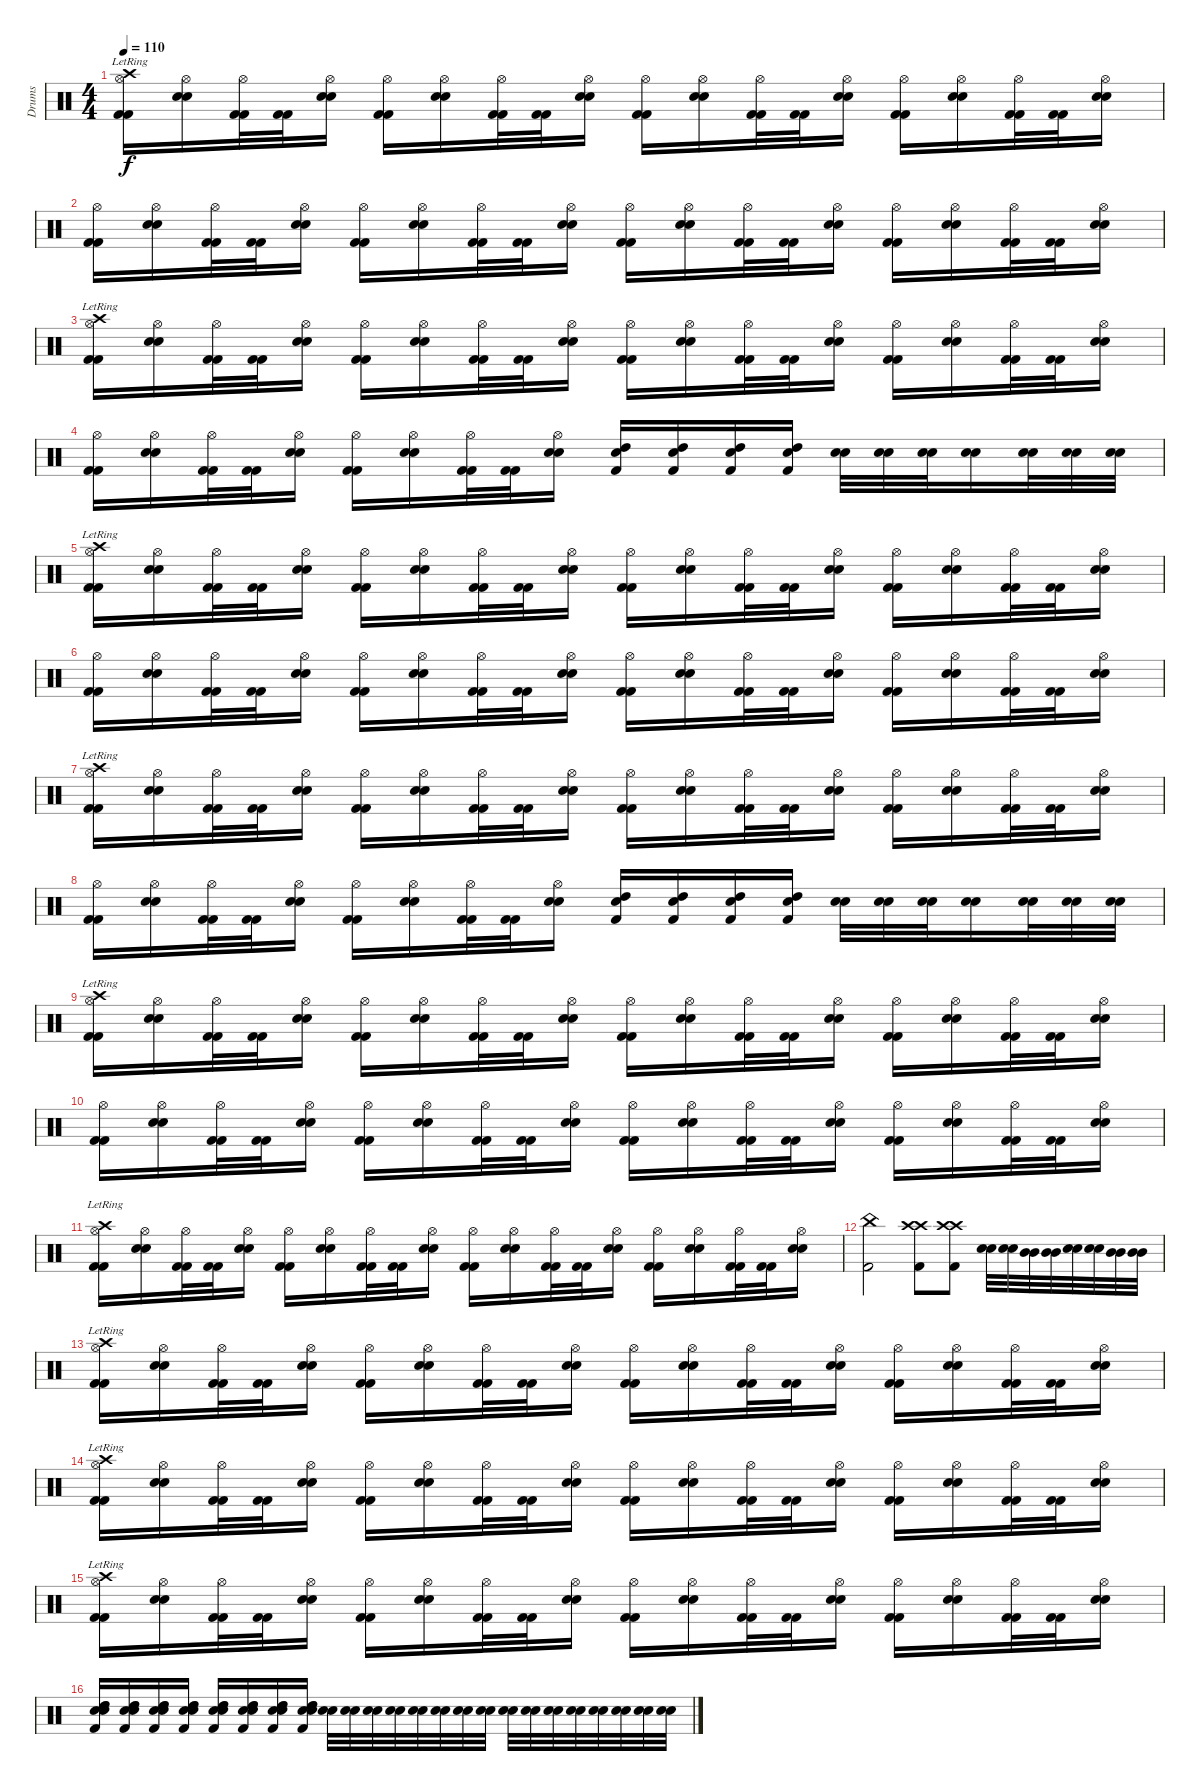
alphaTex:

\track ("Drums" "Drums") {instrument percussion}
\staff {score}
\articulation defaults
\ts (4 4)
\tempo 110
\clef neutral
\ks c
("Kick (hit) 2" "Kick (hit) 2" "Hi-Hat (open)" "Crash high (hit)"{lr}).16{dy f} ("Snare (hit) 2" "Snare (hit) 2" "Hi-Hat (open)").16 ("Kick (hit) 2" "Kick (hit) 2" "Hi-Hat (open)").32 ("Kick (hit) 2" "Kick (hit) 2").32 ("Snare (hit) 2" "Snare (hit) 2" "Hi-Hat (open)").16 ("Kick (hit) 2" "Kick (hit) 2" "Hi-Hat (open)").16 ("Snare (hit) 2" "Snare (hit) 2" "Hi-Hat (open)").16 ("Kick (hit) 2" "Kick (hit) 2" "Hi-Hat (open)").32 ("Kick (hit) 2" "Kick (hit) 2").32 ("Snare (hit) 2" "Snare (hit) 2" "Hi-Hat (open)").16 ("Kick (hit) 2" "Kick (hit) 2" "Hi-Hat (open)").16 ("Snare (hit) 2" "Snare (hit) 2" "Hi-Hat (open)").16 ("Kick (hit) 2" "Kick (hit) 2" "Hi-Hat (open)").32 ("Kick (hit) 2" "Kick (hit) 2").32 ("Snare (hit) 2" "Snare (hit) 2" "Hi-Hat (open)").16 ("Kick (hit) 2" "Kick (hit) 2" "Hi-Hat (open)").16 ("Snare (hit) 2" "Snare (hit) 2" "Hi-Hat (open)").16 ("Kick (hit) 2" "Kick (hit) 2" "Hi-Hat (open)").32 ("Kick (hit) 2" "Kick (hit) 2").32 ("Snare (hit) 2" "Snare (hit) 2" "Hi-Hat (open)").16 |
("Kick (hit) 2" "Kick (hit) 2" "Hi-Hat (open)").16 ("Snare (hit) 2" "Snare (hit) 2" "Hi-Hat (open)").16 ("Kick (hit) 2" "Kick (hit) 2" "Hi-Hat (open)").32 ("Kick (hit) 2" "Kick (hit) 2").32 ("Snare (hit) 2" "Snare (hit) 2" "Hi-Hat (open)").16 ("Kick (hit) 2" "Kick (hit) 2" "Hi-Hat (open)").16 ("Snare (hit) 2" "Snare (hit) 2" "Hi-Hat (open)").16 ("Kick (hit) 2" "Kick (hit) 2" "Hi-Hat (open)").32 ("Kick (hit) 2" "Kick (hit) 2").32 ("Snare (hit) 2" "Snare (hit) 2" "Hi-Hat (open)").16 ("Kick (hit) 2" "Kick (hit) 2" "Hi-Hat (open)").16 ("Snare (hit) 2" "Snare (hit) 2" "Hi-Hat (open)").16 ("Kick (hit) 2" "Kick (hit) 2" "Hi-Hat (open)").32 ("Kick (hit) 2" "Kick (hit) 2").32 ("Snare (hit) 2" "Snare (hit) 2" "Hi-Hat (open)").16 ("Kick (hit) 2" "Kick (hit) 2" "Hi-Hat (open)").16 ("Snare (hit) 2" "Snare (hit) 2" "Hi-Hat (open)").16 ("Kick (hit) 2" "Kick (hit) 2" "Hi-Hat (open)").32 ("Kick (hit) 2" "Kick (hit) 2").32 ("Snare (hit) 2" "Snare (hit) 2" "Hi-Hat (open)").16 |
("Kick (hit) 2" "Kick (hit) 2" "Hi-Hat (open)" "Crash high (hit)"{lr}).16 ("Snare (hit) 2" "Snare (hit) 2" "Hi-Hat (open)").16 ("Kick (hit) 2" "Kick (hit) 2" "Hi-Hat (open)").32 ("Kick (hit) 2" "Kick (hit) 2").32 ("Snare (hit) 2" "Snare (hit) 2" "Hi-Hat (open)").16 ("Kick (hit) 2" "Kick (hit) 2" "Hi-Hat (open)").16 ("Snare (hit) 2" "Snare (hit) 2" "Hi-Hat (open)").16 ("Kick (hit) 2" "Kick (hit) 2" "Hi-Hat (open)").32 ("Kick (hit) 2" "Kick (hit) 2").32 ("Snare (hit) 2" "Snare (hit) 2" "Hi-Hat (open)").16 ("Kick (hit) 2" "Kick (hit) 2" "Hi-Hat (open)").16 ("Snare (hit) 2" "Snare (hit) 2" "Hi-Hat (open)").16 ("Kick (hit) 2" "Kick (hit) 2" "Hi-Hat (open)").32 ("Kick (hit) 2" "Kick (hit) 2").32 ("Snare (hit) 2" "Snare (hit) 2" "Hi-Hat (open)").16 ("Kick (hit) 2" "Kick (hit) 2" "Hi-Hat (open)").16 ("Snare (hit) 2" "Snare (hit) 2" "Hi-Hat (open)").16 ("Kick (hit) 2" "Kick (hit) 2" "Hi-Hat (open)").32 ("Kick (hit) 2" "Kick (hit) 2").32 ("Snare (hit) 2" "Snare (hit) 2" "Hi-Hat (open)").16 |
("Kick (hit) 2" "Kick (hit) 2" "Hi-Hat (open)").16 ("Snare (hit) 2" "Snare (hit) 2" "Hi-Hat (open)").16 ("Kick (hit) 2" "Kick (hit) 2" "Hi-Hat (open)").32 ("Kick (hit) 2" "Kick (hit) 2").32 ("Snare (hit) 2" "Snare (hit) 2" "Hi-Hat (open)").16 ("Kick (hit) 2" "Kick (hit) 2" "Hi-Hat (open)").16 ("Snare (hit) 2" "Snare (hit) 2" "Hi-Hat (open)").16 ("Kick (hit) 2" "Kick (hit) 2" "Hi-Hat (open)").32 ("Kick (hit) 2" "Kick (hit) 2").32 ("Snare (hit) 2" "Snare (hit) 2" "Hi-Hat (open)").16 ("Snare (hit) 2" "High Tom (hit)" "Kick (hit) 2").16 ("Snare (hit) 2" "High Tom (hit)" "Kick (hit) 2").16 ("Snare (hit) 2" "High Tom (hit)" "Kick (hit) 2").16 ("Snare (hit) 2" "High Tom (hit)" "Kick (hit) 2").16 ("Snare (hit) 2" "Snare (hit) 2").32 ("Snare (hit) 2" "Snare (hit) 2").32 ("Snare (hit) 2" "Snare (hit) 2").32 ("Snare (hit) 2" "Snare (hit) 2").16 ("Snare (hit) 2" "Snare (hit) 2").32 ("Snare (hit) 2" "Snare (hit) 2").32 ("Snare (hit) 2" "Snare (hit) 2").32 |
("Kick (hit) 2" "Kick (hit) 2" "Hi-Hat (open)" "Crash high (hit)"{lr}).16 ("Snare (hit) 2" "Snare (hit) 2" "Hi-Hat (open)").16 ("Kick (hit) 2" "Kick (hit) 2" "Hi-Hat (open)").32 ("Kick (hit) 2" "Kick (hit) 2").32 ("Snare (hit) 2" "Snare (hit) 2" "Hi-Hat (open)").16 ("Kick (hit) 2" "Kick (hit) 2" "Hi-Hat (open)").16 ("Snare (hit) 2" "Snare (hit) 2" "Hi-Hat (open)").16 ("Kick (hit) 2" "Kick (hit) 2" "Hi-Hat (open)").32 ("Kick (hit) 2" "Kick (hit) 2").32 ("Snare (hit) 2" "Snare (hit) 2" "Hi-Hat (open)").16 ("Kick (hit) 2" "Kick (hit) 2" "Hi-Hat (open)").16 ("Snare (hit) 2" "Snare (hit) 2" "Hi-Hat (open)").16 ("Kick (hit) 2" "Kick (hit) 2" "Hi-Hat (open)").32 ("Kick (hit) 2" "Kick (hit) 2").32 ("Snare (hit) 2" "Snare (hit) 2" "Hi-Hat (open)").16 ("Kick (hit) 2" "Kick (hit) 2" "Hi-Hat (open)").16 ("Snare (hit) 2" "Snare (hit) 2" "Hi-Hat (open)").16 ("Kick (hit) 2" "Kick (hit) 2" "Hi-Hat (open)").32 ("Kick (hit) 2" "Kick (hit) 2").32 ("Snare (hit) 2" "Snare (hit) 2" "Hi-Hat (open)").16 |
("Kick (hit) 2" "Kick (hit) 2" "Hi-Hat (open)").16 ("Snare (hit) 2" "Snare (hit) 2" "Hi-Hat (open)").16 ("Kick (hit) 2" "Kick (hit) 2" "Hi-Hat (open)").32 ("Kick (hit) 2" "Kick (hit) 2").32 ("Snare (hit) 2" "Snare (hit) 2" "Hi-Hat (open)").16 ("Kick (hit) 2" "Kick (hit) 2" "Hi-Hat (open)").16 ("Snare (hit) 2" "Snare (hit) 2" "Hi-Hat (open)").16 ("Kick (hit) 2" "Kick (hit) 2" "Hi-Hat (open)").32 ("Kick (hit) 2" "Kick (hit) 2").32 ("Snare (hit) 2" "Snare (hit) 2" "Hi-Hat (open)").16 ("Kick (hit) 2" "Kick (hit) 2" "Hi-Hat (open)").16 ("Snare (hit) 2" "Snare (hit) 2" "Hi-Hat (open)").16 ("Kick (hit) 2" "Kick (hit) 2" "Hi-Hat (open)").32 ("Kick (hit) 2" "Kick (hit) 2").32 ("Snare (hit) 2" "Snare (hit) 2" "Hi-Hat (open)").16 ("Kick (hit) 2" "Kick (hit) 2" "Hi-Hat (open)").16 ("Snare (hit) 2" "Snare (hit) 2" "Hi-Hat (open)").16 ("Kick (hit) 2" "Kick (hit) 2" "Hi-Hat (open)").32 ("Kick (hit) 2" "Kick (hit) 2").32 ("Snare (hit) 2" "Snare (hit) 2" "Hi-Hat (open)").16 |
("Kick (hit) 2" "Kick (hit) 2" "Hi-Hat (open)" "Crash high (hit)"{lr}).16 ("Snare (hit) 2" "Snare (hit) 2" "Hi-Hat (open)").16 ("Kick (hit) 2" "Kick (hit) 2" "Hi-Hat (open)").32 ("Kick (hit) 2" "Kick (hit) 2").32 ("Snare (hit) 2" "Snare (hit) 2" "Hi-Hat (open)").16 ("Kick (hit) 2" "Kick (hit) 2" "Hi-Hat (open)").16 ("Snare (hit) 2" "Snare (hit) 2" "Hi-Hat (open)").16 ("Kick (hit) 2" "Kick (hit) 2" "Hi-Hat (open)").32 ("Kick (hit) 2" "Kick (hit) 2").32 ("Snare (hit) 2" "Snare (hit) 2" "Hi-Hat (open)").16 ("Kick (hit) 2" "Kick (hit) 2" "Hi-Hat (open)").16 ("Snare (hit) 2" "Snare (hit) 2" "Hi-Hat (open)").16 ("Kick (hit) 2" "Kick (hit) 2" "Hi-Hat (open)").32 ("Kick (hit) 2" "Kick (hit) 2").32 ("Snare (hit) 2" "Snare (hit) 2" "Hi-Hat (open)").16 ("Kick (hit) 2" "Kick (hit) 2" "Hi-Hat (open)").16 ("Snare (hit) 2" "Snare (hit) 2" "Hi-Hat (open)").16 ("Kick (hit) 2" "Kick (hit) 2" "Hi-Hat (open)").32 ("Kick (hit) 2" "Kick (hit) 2").32 ("Snare (hit) 2" "Snare (hit) 2" "Hi-Hat (open)").16 |
("Kick (hit) 2" "Kick (hit) 2" "Hi-Hat (open)").16 ("Snare (hit) 2" "Snare (hit) 2" "Hi-Hat (open)").16 ("Kick (hit) 2" "Kick (hit) 2" "Hi-Hat (open)").32 ("Kick (hit) 2" "Kick (hit) 2").32 ("Snare (hit) 2" "Snare (hit) 2" "Hi-Hat (open)").16 ("Kick (hit) 2" "Kick (hit) 2" "Hi-Hat (open)").16 ("Snare (hit) 2" "Snare (hit) 2" "Hi-Hat (open)").16 ("Kick (hit) 2" "Kick (hit) 2" "Hi-Hat (open)").32 ("Kick (hit) 2" "Kick (hit) 2").32 ("Snare (hit) 2" "Snare (hit) 2" "Hi-Hat (open)").16 ("Snare (hit) 2" "High Tom (hit)" "Kick (hit) 2").16 ("Snare (hit) 2" "High Tom (hit)" "Kick (hit) 2").16 ("Snare (hit) 2" "High Tom (hit)" "Kick (hit) 2").16 ("Snare (hit) 2" "High Tom (hit)" "Kick (hit) 2").16 ("Snare (hit) 2" "Snare (hit) 2").32 ("Snare (hit) 2" "Snare (hit) 2").32 ("Snare (hit) 2" "Snare (hit) 2").32 ("Snare (hit) 2" "Snare (hit) 2").16 ("Snare (hit) 2" "Snare (hit) 2").32 ("Snare (hit) 2" "Snare (hit) 2").32 ("Snare (hit) 2" "Snare (hit) 2").32 |
("Kick (hit) 2" "Kick (hit) 2" "Hi-Hat (open)" "Crash high (hit)"{lr}).16 ("Snare (hit) 2" "Snare (hit) 2" "Hi-Hat (open)").16 ("Kick (hit) 2" "Kick (hit) 2" "Hi-Hat (open)").32 ("Kick (hit) 2" "Kick (hit) 2").32 ("Snare (hit) 2" "Snare (hit) 2" "Hi-Hat (open)").16 ("Kick (hit) 2" "Kick (hit) 2" "Hi-Hat (open)").16 ("Snare (hit) 2" "Snare (hit) 2" "Hi-Hat (open)").16 ("Kick (hit) 2" "Kick (hit) 2" "Hi-Hat (open)").32 ("Kick (hit) 2" "Kick (hit) 2").32 ("Snare (hit) 2" "Snare (hit) 2" "Hi-Hat (open)").16 ("Kick (hit) 2" "Kick (hit) 2" "Hi-Hat (open)").16 ("Snare (hit) 2" "Snare (hit) 2" "Hi-Hat (open)").16 ("Kick (hit) 2" "Kick (hit) 2" "Hi-Hat (open)").32 ("Kick (hit) 2" "Kick (hit) 2").32 ("Snare (hit) 2" "Snare (hit) 2" "Hi-Hat (open)").16 ("Kick (hit) 2" "Kick (hit) 2" "Hi-Hat (open)").16 ("Snare (hit) 2" "Snare (hit) 2" "Hi-Hat (open)").16 ("Kick (hit) 2" "Kick (hit) 2" "Hi-Hat (open)").32 ("Kick (hit) 2" "Kick (hit) 2").32 ("Snare (hit) 2" "Snare (hit) 2" "Hi-Hat (open)").16 |
("Kick (hit) 2" "Kick (hit) 2" "Hi-Hat (open)").16 ("Snare (hit) 2" "Snare (hit) 2" "Hi-Hat (open)").16 ("Kick (hit) 2" "Kick (hit) 2" "Hi-Hat (open)").32 ("Kick (hit) 2" "Kick (hit) 2").32 ("Snare (hit) 2" "Snare (hit) 2" "Hi-Hat (open)").16 ("Kick (hit) 2" "Kick (hit) 2" "Hi-Hat (open)").16 ("Snare (hit) 2" "Snare (hit) 2" "Hi-Hat (open)").16 ("Kick (hit) 2" "Kick (hit) 2" "Hi-Hat (open)").32 ("Kick (hit) 2" "Kick (hit) 2").32 ("Snare (hit) 2" "Snare (hit) 2" "Hi-Hat (open)").16 ("Kick (hit) 2" "Kick (hit) 2" "Hi-Hat (open)").16 ("Snare (hit) 2" "Snare (hit) 2" "Hi-Hat (open)").16 ("Kick (hit) 2" "Kick (hit) 2" "Hi-Hat (open)").32 ("Kick (hit) 2" "Kick (hit) 2").32 ("Snare (hit) 2" "Snare (hit) 2" "Hi-Hat (open)").16 ("Kick (hit) 2" "Kick (hit) 2" "Hi-Hat (open)").16 ("Snare (hit) 2" "Snare (hit) 2" "Hi-Hat (open)").16 ("Kick (hit) 2" "Kick (hit) 2" "Hi-Hat (open)").32 ("Kick (hit) 2" "Kick (hit) 2").32 ("Snare (hit) 2" "Snare (hit) 2" "Hi-Hat (open)").16 |
("Kick (hit) 2" "Kick (hit) 2" "Hi-Hat (open)" "Crash high (hit)"{lr}).16 ("Snare (hit) 2" "Snare (hit) 2" "Hi-Hat (open)").16 ("Kick (hit) 2" "Kick (hit) 2" "Hi-Hat (open)").32 ("Kick (hit) 2" "Kick (hit) 2").32 ("Snare (hit) 2" "Snare (hit) 2" "Hi-Hat (open)").16 ("Kick (hit) 2" "Kick (hit) 2" "Hi-Hat (open)").16 ("Snare (hit) 2" "Snare (hit) 2" "Hi-Hat (open)").16 ("Kick (hit) 2" "Kick (hit) 2" "Hi-Hat (open)").32 ("Kick (hit) 2" "Kick (hit) 2").32 ("Snare (hit) 2" "Snare (hit) 2" "Hi-Hat (open)").16 ("Kick (hit) 2" "Kick (hit) 2" "Hi-Hat (open)").16 ("Snare (hit) 2" "Snare (hit) 2" "Hi-Hat (open)").16 ("Kick (hit) 2" "Kick (hit) 2" "Hi-Hat (open)").32 ("Kick (hit) 2" "Kick (hit) 2").32 ("Snare (hit) 2" "Snare (hit) 2" "Hi-Hat (open)").16 ("Kick (hit) 2" "Kick (hit) 2" "Hi-Hat (open)").16 ("Snare (hit) 2" "Snare (hit) 2" "Hi-Hat (open)").16 ("Kick (hit) 2" "Kick (hit) 2" "Hi-Hat (open)").32 ("Kick (hit) 2" "Kick (hit) 2").32 ("Snare (hit) 2" "Snare (hit) 2" "Hi-Hat (open)").16 |
("China (hit)" "Kick (hit) 2").2 ("Crash high (hit)" "Crash high (hit)" "Kick (hit) 2").8 ("Crash high (hit)" "Crash high (hit)" "Kick (hit) 2").8 ("Snare (hit) 2" "Snare (hit) 2").32 ("Snare (hit) 2" "Snare (hit) 2").32 ("Mid Tom (hit)" "Mid Tom (hit)").32 ("Mid Tom (hit)" "Mid Tom (hit)").32 ("Snare (hit) 2" "Snare (hit) 2").32 ("Snare (hit) 2" "Snare (hit) 2").32 ("Mid Tom (hit)" "Mid Tom (hit)").32 ("Mid Tom (hit)" "Mid Tom (hit)").32 |
("Kick (hit) 2" "Kick (hit) 2" "Hi-Hat (open)" "Crash high (hit)"{lr}).16 ("Snare (hit) 2" "Snare (hit) 2" "Hi-Hat (open)").16 ("Kick (hit) 2" "Kick (hit) 2" "Hi-Hat (open)").32 ("Kick (hit) 2" "Kick (hit) 2").32 ("Snare (hit) 2" "Snare (hit) 2" "Hi-Hat (open)").16 ("Kick (hit) 2" "Kick (hit) 2" "Hi-Hat (open)").16 ("Snare (hit) 2" "Snare (hit) 2" "Hi-Hat (open)").16 ("Kick (hit) 2" "Kick (hit) 2" "Hi-Hat (open)").32 ("Kick (hit) 2" "Kick (hit) 2").32 ("Snare (hit) 2" "Snare (hit) 2" "Hi-Hat (open)").16 ("Kick (hit) 2" "Kick (hit) 2" "Hi-Hat (open)").16 ("Snare (hit) 2" "Snare (hit) 2" "Hi-Hat (open)").16 ("Kick (hit) 2" "Kick (hit) 2" "Hi-Hat (open)").32 ("Kick (hit) 2" "Kick (hit) 2").32 ("Snare (hit) 2" "Snare (hit) 2" "Hi-Hat (open)").16 ("Kick (hit) 2" "Kick (hit) 2" "Hi-Hat (open)").16 ("Snare (hit) 2" "Snare (hit) 2" "Hi-Hat (open)").16 ("Kick (hit) 2" "Kick (hit) 2" "Hi-Hat (open)").32 ("Kick (hit) 2" "Kick (hit) 2").32 ("Snare (hit) 2" "Snare (hit) 2" "Hi-Hat (open)").16 |
("Kick (hit) 2" "Kick (hit) 2" "Hi-Hat (open)" "Crash high (hit)"{lr}).16 ("Snare (hit) 2" "Snare (hit) 2" "Hi-Hat (open)").16 ("Kick (hit) 2" "Kick (hit) 2" "Hi-Hat (open)").32 ("Kick (hit) 2" "Kick (hit) 2").32 ("Snare (hit) 2" "Snare (hit) 2" "Hi-Hat (open)").16 ("Kick (hit) 2" "Kick (hit) 2" "Hi-Hat (open)").16 ("Snare (hit) 2" "Snare (hit) 2" "Hi-Hat (open)").16 ("Kick (hit) 2" "Kick (hit) 2" "Hi-Hat (open)").32 ("Kick (hit) 2" "Kick (hit) 2").32 ("Snare (hit) 2" "Snare (hit) 2" "Hi-Hat (open)").16 ("Kick (hit) 2" "Kick (hit) 2" "Hi-Hat (open)").16 ("Snare (hit) 2" "Snare (hit) 2" "Hi-Hat (open)").16 ("Kick (hit) 2" "Kick (hit) 2" "Hi-Hat (open)").32 ("Kick (hit) 2" "Kick (hit) 2").32 ("Snare (hit) 2" "Snare (hit) 2" "Hi-Hat (open)").16 ("Kick (hit) 2" "Kick (hit) 2" "Hi-Hat (open)").16 ("Snare (hit) 2" "Snare (hit) 2" "Hi-Hat (open)").16 ("Kick (hit) 2" "Kick (hit) 2" "Hi-Hat (open)").32 ("Kick (hit) 2" "Kick (hit) 2").32 ("Snare (hit) 2" "Snare (hit) 2" "Hi-Hat (open)").16 |
("Kick (hit) 2" "Kick (hit) 2" "Hi-Hat (open)" "Crash high (hit)"{lr}).16 ("Snare (hit) 2" "Snare (hit) 2" "Hi-Hat (open)").16 ("Kick (hit) 2" "Kick (hit) 2" "Hi-Hat (open)").32 ("Kick (hit) 2" "Kick (hit) 2").32 ("Snare (hit) 2" "Snare (hit) 2" "Hi-Hat (open)").16 ("Kick (hit) 2" "Kick (hit) 2" "Hi-Hat (open)").16 ("Snare (hit) 2" "Snare (hit) 2" "Hi-Hat (open)").16 ("Kick (hit) 2" "Kick (hit) 2" "Hi-Hat (open)").32 ("Kick (hit) 2" "Kick (hit) 2").32 ("Snare (hit) 2" "Snare (hit) 2" "Hi-Hat (open)").16 ("Kick (hit) 2" "Kick (hit) 2" "Hi-Hat (open)").16 ("Snare (hit) 2" "Snare (hit) 2" "Hi-Hat (open)").16 ("Kick (hit) 2" "Kick (hit) 2" "Hi-Hat (open)").32 ("Kick (hit) 2" "Kick (hit) 2").32 ("Snare (hit) 2" "Snare (hit) 2" "Hi-Hat (open)").16 ("Kick (hit) 2" "Kick (hit) 2" "Hi-Hat (open)").16 ("Snare (hit) 2" "Snare (hit) 2" "Hi-Hat (open)").16 ("Kick (hit) 2" "Kick (hit) 2" "Hi-Hat (open)").32 ("Kick (hit) 2" "Kick (hit) 2").32 ("Snare (hit) 2" "Snare (hit) 2" "Hi-Hat (open)").16 |
("Snare (hit) 2" "Snare (hit) 2" "High Tom (hit)" "High Tom (hit)" "Kick (hit) 2").16 ("Snare (hit) 2" "Snare (hit) 2" "High Tom (hit)" "High Tom (hit)" "Kick (hit) 2").16 ("Snare (hit) 2" "Snare (hit) 2" "High Tom (hit)" "High Tom (hit)" "Kick (hit) 2").16 ("Snare (hit) 2" "Snare (hit) 2" "High Tom (hit)" "High Tom (hit)" "Kick (hit) 2").16 ("Snare (hit) 2" "Snare (hit) 2" "High Tom (hit)" "High Tom (hit)" "Kick (hit) 2").16 ("Snare (hit) 2" "Snare (hit) 2" "High Tom (hit)" "High Tom (hit)" "Kick (hit) 2").16 ("Snare (hit) 2" "Snare (hit) 2" "High Tom (hit)" "High Tom (hit)" "Kick (hit) 2").16 ("Snare (hit) 2" "Snare (hit) 2" "High Tom (hit)" "High Tom (hit)" "Kick (hit) 2").16 ("Snare (hit) 2" "Snare (hit) 2").32 ("Snare (hit) 2" "Snare (hit) 2").32 ("Snare (hit) 2" "Snare (hit) 2").32 ("Snare (hit) 2" "Snare (hit) 2").32 ("Snare (hit) 2" "Snare (hit) 2").32 ("Snare (hit) 2" "Snare (hit) 2").32 ("Snare (hit) 2" "Snare (hit) 2").32 ("Snare (hit) 2" "Snare (hit) 2").32 ("Snare (hit) 2" "Snare (hit) 2").32 ("Snare (hit) 2" "Snare (hit) 2").32 ("Snare (hit) 2" "Snare (hit) 2").32 ("Snare (hit) 2" "Snare (hit) 2").32 ("Snare (hit) 2" "Snare (hit) 2").32 ("Snare (hit) 2" "Snare (hit) 2").32 ("Snare (hit) 2" "Snare (hit) 2").32 ("Snare (hit) 2" "Snare (hit) 2").32
